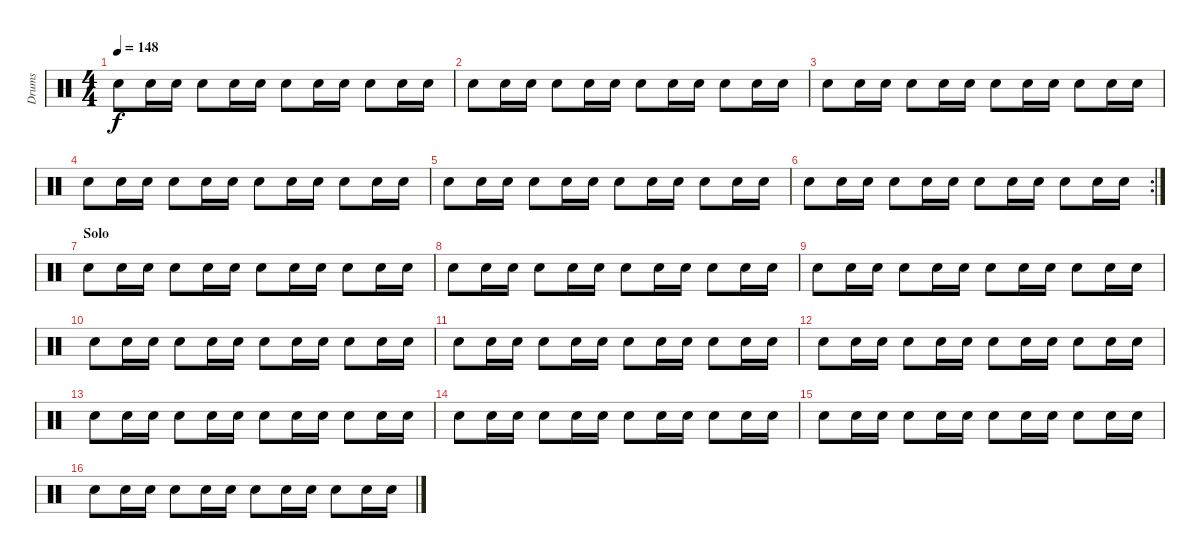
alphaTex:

\track ("Drums" "Drums") {instrument percussion}
\staff {score}
\articulation defaults
\ts (4 4)
\tempo 148
\clef neutral
\ks c "Snare (hit) 2".8{dy f} "Snare (hit) 2".16 "Snare (hit) 2".16 "Snare (hit) 2".8 "Snare (hit) 2".16 "Snare (hit) 2".16 "Snare (hit) 2".8 "Snare (hit) 2".16 "Snare (hit) 2".16 "Snare (hit) 2".8 "Snare (hit) 2".16 "Snare (hit) 2".16
|
"Snare (hit) 2".8 "Snare (hit) 2".16 "Snare (hit) 2".16 "Snare (hit) 2".8 "Snare (hit) 2".16 "Snare (hit) 2".16 "Snare (hit) 2".8 "Snare (hit) 2".16 "Snare (hit) 2".16 "Snare (hit) 2".8 "Snare (hit) 2".16 "Snare (hit) 2".16 |
"Snare (hit) 2".8 "Snare (hit) 2".16 "Snare (hit) 2".16 "Snare (hit) 2".8 "Snare (hit) 2".16 "Snare (hit) 2".16 "Snare (hit) 2".8 "Snare (hit) 2".16 "Snare (hit) 2".16 "Snare (hit) 2".8 "Snare (hit) 2".16 "Snare (hit) 2".16 |
"Snare (hit) 2".8 "Snare (hit) 2".16 "Snare (hit) 2".16 "Snare (hit) 2".8 "Snare (hit) 2".16 "Snare (hit) 2".16 "Snare (hit) 2".8 "Snare (hit) 2".16 "Snare (hit) 2".16 "Snare (hit) 2".8 "Snare (hit) 2".16 "Snare (hit) 2".16 |
"Snare (hit) 2".8 "Snare (hit) 2".16 "Snare (hit) 2".16 "Snare (hit) 2".8 "Snare (hit) 2".16 "Snare (hit) 2".16 "Snare (hit) 2".8 "Snare (hit) 2".16 "Snare (hit) 2".16 "Snare (hit) 2".8 "Snare (hit) 2".16 "Snare (hit) 2".16 |
\rc 2 "Snare (hit) 2".8 "Snare (hit) 2".16 "Snare (hit) 2".16 "Snare (hit) 2".8 "Snare (hit) 2".16 "Snare (hit) 2".16 "Snare (hit) 2".8 "Snare (hit) 2".16 "Snare (hit) 2".16 "Snare (hit) 2".8 "Snare (hit) 2".16 "Snare (hit) 2".16
|
\section ("" "Solo")
"Snare (hit) 2".8 "Snare (hit) 2".16 "Snare (hit) 2".16 "Snare (hit) 2".8 "Snare (hit) 2".16 "Snare (hit) 2".16 "Snare (hit) 2".8 "Snare (hit) 2".16 "Snare (hit) 2".16 "Snare (hit) 2".8 "Snare (hit) 2".16 "Snare (hit) 2".16 |
"Snare (hit) 2".8 "Snare (hit) 2".16 "Snare (hit) 2".16 "Snare (hit) 2".8 "Snare (hit) 2".16 "Snare (hit) 2".16 "Snare (hit) 2".8 "Snare (hit) 2".16 "Snare (hit) 2".16 "Snare (hit) 2".8 "Snare (hit) 2".16 "Snare (hit) 2".16 |
"Snare (hit) 2".8 "Snare (hit) 2".16 "Snare (hit) 2".16 "Snare (hit) 2".8 "Snare (hit) 2".16 "Snare (hit) 2".16 "Snare (hit) 2".8 "Snare (hit) 2".16 "Snare (hit) 2".16 "Snare (hit) 2".8 "Snare (hit) 2".16 "Snare (hit) 2".16 |
"Snare (hit) 2".8 "Snare (hit) 2".16 "Snare (hit) 2".16 "Snare (hit) 2".8 "Snare (hit) 2".16 "Snare (hit) 2".16 "Snare (hit) 2".8 "Snare (hit) 2".16 "Snare (hit) 2".16 "Snare (hit) 2".8 "Snare (hit) 2".16 "Snare (hit) 2".16 |
"Snare (hit) 2".8 "Snare (hit) 2".16 "Snare (hit) 2".16 "Snare (hit) 2".8 "Snare (hit) 2".16 "Snare (hit) 2".16 "Snare (hit) 2".8 "Snare (hit) 2".16 "Snare (hit) 2".16 "Snare (hit) 2".8 "Snare (hit) 2".16 "Snare (hit) 2".16 |
"Snare (hit) 2".8 "Snare (hit) 2".16 "Snare (hit) 2".16 "Snare (hit) 2".8 "Snare (hit) 2".16 "Snare (hit) 2".16 "Snare (hit) 2".8 "Snare (hit) 2".16 "Snare (hit) 2".16 "Snare (hit) 2".8 "Snare (hit) 2".16 "Snare (hit) 2".16 |
"Snare (hit) 2".8 "Snare (hit) 2".16 "Snare (hit) 2".16 "Snare (hit) 2".8 "Snare (hit) 2".16 "Snare (hit) 2".16 "Snare (hit) 2".8 "Snare (hit) 2".16 "Snare (hit) 2".16 "Snare (hit) 2".8 "Snare (hit) 2".16 "Snare (hit) 2".16 |
"Snare (hit) 2".8 "Snare (hit) 2".16 "Snare (hit) 2".16 "Snare (hit) 2".8 "Snare (hit) 2".16 "Snare (hit) 2".16 "Snare (hit) 2".8 "Snare (hit) 2".16 "Snare (hit) 2".16 "Snare (hit) 2".8 "Snare (hit) 2".16 "Snare (hit) 2".16 |
"Snare (hit) 2".8 "Snare (hit) 2".16 "Snare (hit) 2".16 "Snare (hit) 2".8 "Snare (hit) 2".16 "Snare (hit) 2".16 "Snare (hit) 2".8 "Snare (hit) 2".16 "Snare (hit) 2".16 "Snare (hit) 2".8 "Snare (hit) 2".16 "Snare (hit) 2".16 |
"Snare (hit) 2".8 "Snare (hit) 2".16 "Snare (hit) 2".16 "Snare (hit) 2".8 "Snare (hit) 2".16 "Snare (hit) 2".16 "Snare (hit) 2".8 "Snare (hit) 2".16 "Snare (hit) 2".16 "Snare (hit) 2".8 "Snare (hit) 2".16 "Snare (hit) 2".16
